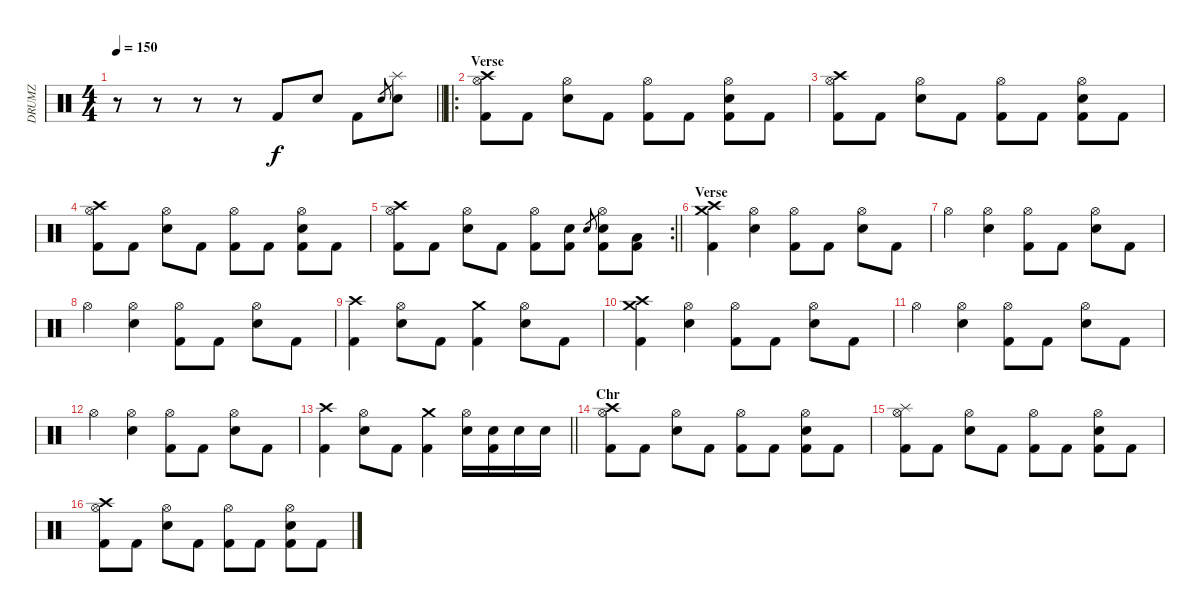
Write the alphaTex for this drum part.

\track ("DRUMZ" "DRUMZ") {instrument percussion}
\staff {score}
\articulation defaults
\ts (4 4)
\tempo 150
\clef neutral
\barLineRight lightlight
\ks c
r.8{dy f} r.8 r.8 r.8 "Kick (hit) 2".8{volume 15} "Electric Snare (hit)".8 "Kick (hit) 2".8 "Electric Snare (hit)".8{gr} ("Splash (hit)" "Electric Snare (hit)").8 |
\ro
\section ("" "Verse")
("Crash high (hit)" "Hi-Hat (open)" "Kick (hit) 2").8 "Kick (hit) 2".8 ("Hi-Hat (open)" "Electric Snare (hit)").8 "Kick (hit) 2".8 ("Hi-Hat (open)" "Kick (hit) 2").8 "Kick (hit) 2".8 ("Hi-Hat (open)" "Electric Snare (hit)" "Kick (hit) 2").8 "Kick (hit) 2".8 |
("Crash high (hit)" "Hi-Hat (open)" "Kick (hit) 2").8 "Kick (hit) 2".8 ("Hi-Hat (open)" "Electric Snare (hit)").8 "Kick (hit) 2".8 ("Hi-Hat (open)" "Kick (hit) 2").8 "Kick (hit) 2".8 ("Hi-Hat (open)" "Electric Snare (hit)" "Kick (hit) 2").8 "Kick (hit) 2".8 |
("Crash high (hit)" "Hi-Hat (open)" "Kick (hit) 2").8 "Kick (hit) 2".8 ("Hi-Hat (open)" "Electric Snare (hit)").8 "Kick (hit) 2".8 ("Hi-Hat (open)" "Kick (hit) 2").8 "Kick (hit) 2".8 ("Hi-Hat (open)" "Electric Snare (hit)" "Kick (hit) 2").8 "Kick (hit) 2".8 |
\rc 2
\barLineRight lightlight
("Crash high (hit)" "Hi-Hat (open)" "Kick (hit) 2").8 "Kick (hit) 2".8 ("Hi-Hat (open)" "Electric Snare (hit)").8 "Kick (hit) 2".8 ("Hi-Hat (open)" "Kick (hit) 2").8 ("Electric Snare (hit)" "Kick (hit) 2").8 "Electric Snare (hit)".8{gr} ("Hi-Hat (open)" "Electric Snare (hit)" "Kick (hit) 2").8 ("Low Floor Tom (hit)" "Kick (hit) 2").8 |
\section ("" "Verse ")
("Crash medium (hit)" "Crash high (hit)" "Kick (hit) 2").4 ("Hi-Hat (open)" "Electric Snare (hit)").4 ("Hi-Hat (open)" "Kick (hit) 2").8 "Kick (hit) 2".8 ("Hi-Hat (open)" "Electric Snare (hit)").8 "Kick (hit) 2".8 |
"Hi-Hat (open)".4 ("Hi-Hat (open)" "Electric Snare (hit)").4 ("Hi-Hat (open)" "Kick (hit) 2").8 "Kick (hit) 2".8 ("Hi-Hat (open)" "Electric Snare (hit)").8 "Kick (hit) 2".8 |
"Hi-Hat (open)".4 ("Hi-Hat (open)" "Electric Snare (hit)").4 ("Hi-Hat (open)" "Kick (hit) 2").8 "Kick (hit) 2".8 ("Hi-Hat (open)" "Electric Snare (hit)").8 "Kick (hit) 2".8 |
("Crash high (hit)" "Kick (hit) 2").4 ("Hi-Hat (open)" "Electric Snare (hit)").8 "Kick (hit) 2".8 ("Crash medium (hit)" "Kick (hit) 2").4 ("Hi-Hat (open)" "Electric Snare (hit)").8 "Kick (hit) 2".8 |
("Crash medium (hit)" "Crash high (hit)" "Kick (hit) 2").4 ("Hi-Hat (open)" "Electric Snare (hit)").4 ("Hi-Hat (open)" "Kick (hit) 2").8 "Kick (hit) 2".8 ("Hi-Hat (open)" "Electric Snare (hit)").8 "Kick (hit) 2".8 |
"Hi-Hat (open)".4 ("Hi-Hat (open)" "Electric Snare (hit)").4 ("Hi-Hat (open)" "Kick (hit) 2").8 "Kick (hit) 2".8 ("Hi-Hat (open)" "Electric Snare (hit)").8 "Kick (hit) 2".8 |
"Hi-Hat (open)".4 ("Hi-Hat (open)" "Electric Snare (hit)").4 ("Hi-Hat (open)" "Kick (hit) 2").8 "Kick (hit) 2".8 ("Hi-Hat (open)" "Electric Snare (hit)").8 "Kick (hit) 2".8 |
\barLineRight lightlight
("Crash high (hit)" "Kick (hit) 2").4 ("Hi-Hat (open)" "Electric Snare (hit)").8 "Kick (hit) 2".8 ("Crash medium (hit)" "Kick (hit) 2").4 ("Hi-Hat (open)" "Electric Snare (hit)").16 ("Electric Snare (hit)" "Kick (hit) 2").16 "Electric Snare (hit)".16 "Electric Snare (hit)".16 |
\section ("" "Chr")
("Crash high (hit)" "Hi-Hat (open)" "Kick (hit) 2").8 "Kick (hit) 2".8 ("Hi-Hat (open)" "Electric Snare (hit)").8 "Kick (hit) 2".8 ("Hi-Hat (open)" "Kick (hit) 2").8 "Kick (hit) 2".8 ("Hi-Hat (open)" "Electric Snare (hit)" "Kick (hit) 2").8 "Kick (hit) 2".8 |
("Splash (hit)" "Hi-Hat (open)" "Kick (hit) 2").8 "Kick (hit) 2".8 ("Hi-Hat (open)" "Electric Snare (hit)").8 "Kick (hit) 2".8 ("Hi-Hat (open)" "Kick (hit) 2").8 "Kick (hit) 2".8 ("Hi-Hat (open)" "Electric Snare (hit)" "Kick (hit) 2").8 "Kick (hit) 2".8 |
("Crash high (hit)" "Hi-Hat (open)" "Kick (hit) 2").8 "Kick (hit) 2".8 ("Hi-Hat (open)" "Electric Snare (hit)").8 "Kick (hit) 2".8 ("Hi-Hat (open)" "Kick (hit) 2").8 "Kick (hit) 2".8 ("Hi-Hat (open)" "Electric Snare (hit)" "Kick (hit) 2").8 "Kick (hit) 2".8
